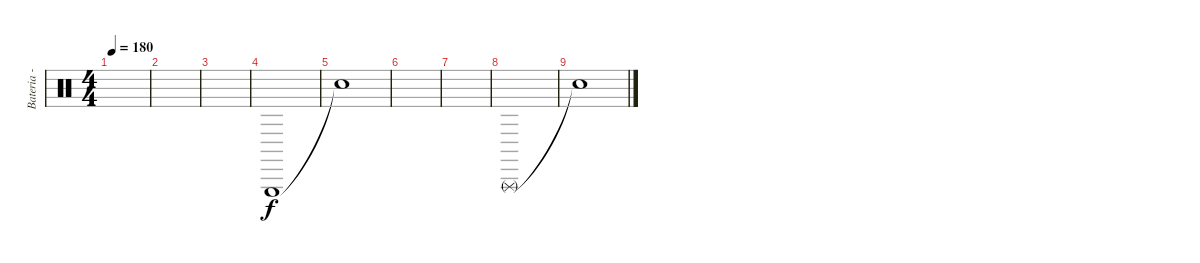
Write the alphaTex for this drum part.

\track ("Bateria - Drums" "Bateria - ") {instrument percussion}
\staff {score}
\articulation defaults
\ts (4 4)
\tempo 180
\clef neutral
\ks c
|
|
|
"Triangle (hit)".1 |
"Snare (hit)"{t}.1 |
|
|
"Triangle (rnute)".1 |
"Snare (hit)"{t}.1
